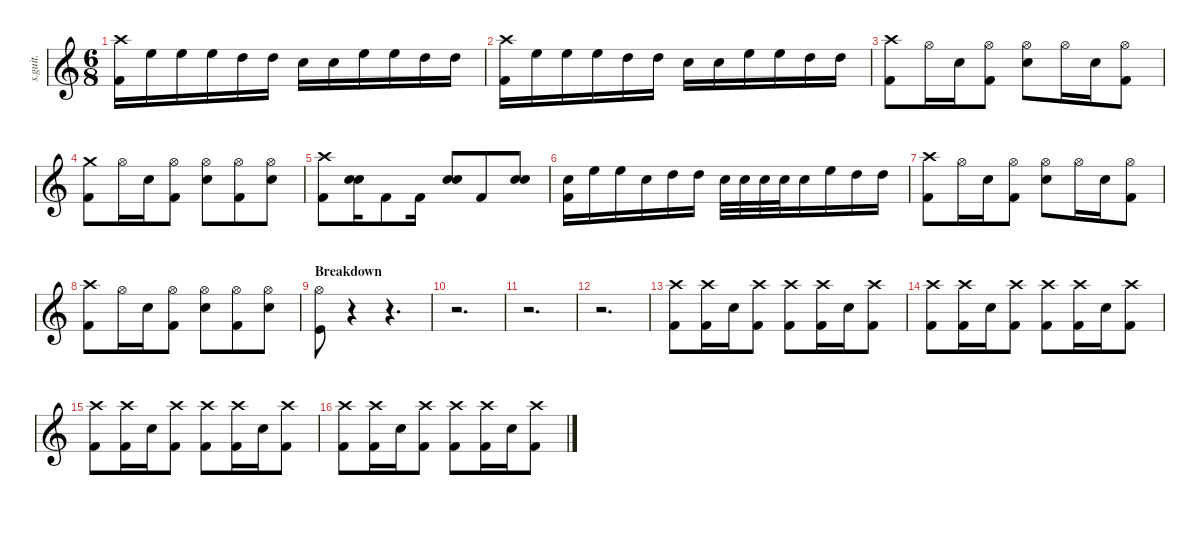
\defaultSystemsLayout 4
\hideDynamics
\bracketExtendMode nobrackets
\track ("John Dolmayan" "s.guit.") {instrument percussion}
\staff {score}
\articulation defaults
\ts (6 8)
\tempo (120 hide)
\clef g2
\ks c
("Crash high (hit)" "Kick (hit) 2").16{lyrics (0 "") lyrics (1 "") lyrics (2 "") lyrics (3 "") lyrics (4 "") dy f} "High Floor Tom (hit)".16{lyrics (0 "") lyrics (1 "") lyrics (2 "") lyrics (3 "") lyrics (4 "")} "High Floor Tom (hit)".16{lyrics (0 "") lyrics (1 "") lyrics (2 "") lyrics (3 "") lyrics (4 "")} "High Floor Tom (hit)".16{lyrics (0 "") lyrics (1 "") lyrics (2 "") lyrics (3 "") lyrics (4 "")} "High Tom (hit)".16{lyrics (0 "") lyrics (1 "") lyrics (2 "") lyrics (3 "") lyrics (4 "")} "High Tom (hit)".16{lyrics (0 "") lyrics (1 "") lyrics (2 "") lyrics (3 "") lyrics (4 "")} "Snare (hit) 2".16{lyrics (0 "") lyrics (1 "") lyrics (2 "") lyrics (3 "") lyrics (4 "")} "Snare (hit) 2".16{lyrics (0 "") lyrics (1 "") lyrics (2 "") lyrics (3 "") lyrics (4 "")} "High Floor Tom (hit)".16{lyrics (0 "") lyrics (1 "") lyrics (2 "") lyrics (3 "") lyrics (4 "")} "High Floor Tom (hit)".16{lyrics (0 "") lyrics (1 "") lyrics (2 "") lyrics (3 "") lyrics (4 "")} "High Tom (hit)".16{lyrics (0 "") lyrics (1 "") lyrics (2 "") lyrics (3 "") lyrics (4 "")} "High Tom (hit)".16{lyrics (0 "") lyrics (1 "") lyrics (2 "") lyrics (3 "") lyrics (4 "")} |
("Crash high (hit)" "Kick (hit) 2").16{lyrics (0 "") lyrics (1 "") lyrics (2 "") lyrics (3 "") lyrics (4 "")} "High Floor Tom (hit)".16{lyrics (0 "") lyrics (1 "") lyrics (2 "") lyrics (3 "") lyrics (4 "")} "High Floor Tom (hit)".16{lyrics (0 "") lyrics (1 "") lyrics (2 "") lyrics (3 "") lyrics (4 "")} "High Floor Tom (hit)".16{lyrics (0 "") lyrics (1 "") lyrics (2 "") lyrics (3 "") lyrics (4 "")} "High Tom (hit)".16{lyrics (0 "") lyrics (1 "") lyrics (2 "") lyrics (3 "") lyrics (4 "")} "High Tom (hit)".16{lyrics (0 "") lyrics (1 "") lyrics (2 "") lyrics (3 "") lyrics (4 "")} "Snare (hit) 2".16{lyrics (0 "") lyrics (1 "") lyrics (2 "") lyrics (3 "") lyrics (4 "")} "Snare (hit) 2".16{lyrics (0 "") lyrics (1 "") lyrics (2 "") lyrics (3 "") lyrics (4 "")} "High Floor Tom (hit)".16{lyrics (0 "") lyrics (1 "") lyrics (2 "") lyrics (3 "") lyrics (4 "")} "High Floor Tom (hit)".16{lyrics (0 "") lyrics (1 "") lyrics (2 "") lyrics (3 "") lyrics (4 "")} "High Tom (hit)".16{lyrics (0 "") lyrics (1 "") lyrics (2 "") lyrics (3 "") lyrics (4 "")} "High Tom (hit)".16{lyrics (0 "") lyrics (1 "") lyrics (2 "") lyrics (3 "") lyrics (4 "")} |
("Crash high (hit)" "Kick (hit) 2").8{lyrics (0 "") lyrics (1 "") lyrics (2 "") lyrics (3 "") lyrics (4 "")} "Hi-Hat (open)".16{lyrics (0 "") lyrics (1 "") lyrics (2 "") lyrics (3 "") lyrics (4 "")} "Snare (hit) 2".16{lyrics (0 "") lyrics (1 "") lyrics (2 "") lyrics (3 "") lyrics (4 "")} ("Hi-Hat (open)" "Kick (hit) 2").8{lyrics (0 "") lyrics (1 "") lyrics (2 "") lyrics (3 "") lyrics (4 "")} ("Hi-Hat (open)" "Snare (hit) 2").8{lyrics (0 "") lyrics (1 "") lyrics (2 "") lyrics (3 "") lyrics (4 "")} "Hi-Hat (open)".16{lyrics (0 "") lyrics (1 "") lyrics (2 "") lyrics (3 "") lyrics (4 "")} "Snare (hit) 2".16{lyrics (0 "") lyrics (1 "") lyrics (2 "") lyrics (3 "") lyrics (4 "")} ("Hi-Hat (open)" "Kick (hit) 2").8{lyrics (0 "") lyrics (1 "") lyrics (2 "") lyrics (3 "") lyrics (4 "")} |
("Crash medium (hit)" "Kick (hit) 2").8{lyrics (0 "") lyrics (1 "") lyrics (2 "") lyrics (3 "") lyrics (4 "")} "Hi-Hat (open)".16{lyrics (0 "") lyrics (1 "") lyrics (2 "") lyrics (3 "") lyrics (4 "")} "Snare (hit) 2".16{lyrics (0 "") lyrics (1 "") lyrics (2 "") lyrics (3 "") lyrics (4 "")} ("Hi-Hat (open)" "Kick (hit) 2").8{lyrics (0 "") lyrics (1 "") lyrics (2 "") lyrics (3 "") lyrics (4 "")} ("Hi-Hat (open)" "Snare (hit) 2").8{lyrics (0 "") lyrics (1 "") lyrics (2 "") lyrics (3 "") lyrics (4 "")} ("Hi-Hat (open)" "Kick (hit) 2").8{lyrics (0 "") lyrics (1 "") lyrics (2 "") lyrics (3 "") lyrics (4 "")} ("Hi-Hat (open)" "Snare (hit) 2").8{lyrics (0 "") lyrics (1 "") lyrics (2 "") lyrics (3 "") lyrics (4 "")} |
("Crash high (hit)" "Kick (hit) 2").8{lyrics (0 "") lyrics (1 "") lyrics (2 "") lyrics (3 "") lyrics (4 "")} ("Snare (hit) 2" "Snare (hit) 2").16{bu 30 lyrics (0 "") lyrics (1 "") lyrics (2 "") lyrics (3 "") lyrics (4 "")} "Kick (hit) 2".8{lyrics (0 "") lyrics (1 "") lyrics (2 "") lyrics (3 "") lyrics (4 "")} "Kick (hit) 2".16{lyrics (0 "") lyrics (1 "") lyrics (2 "") lyrics (3 "") lyrics (4 "")} ("Snare (hit) 2" "Snare (hit) 2").8{bu 30 lyrics (0 "") lyrics (1 "") lyrics (2 "") lyrics (3 "") lyrics (4 "")} "Kick (hit) 2".8{lyrics (0 "") lyrics (1 "") lyrics (2 "") lyrics (3 "") lyrics (4 "")} ("Snare (hit) 2" "Snare (hit) 2").8{bu 30 lyrics (0 "") lyrics (1 "") lyrics (2 "") lyrics (3 "") lyrics (4 "")} |
("Snare (hit) 2" "Kick (hit) 2").16{lyrics (0 "") lyrics (1 "") lyrics (2 "") lyrics (3 "") lyrics (4 "")} "High Floor Tom (hit)".16{lyrics (0 "") lyrics (1 "") lyrics (2 "") lyrics (3 "") lyrics (4 "")} "High Floor Tom (hit)".16{lyrics (0 "") lyrics (1 "") lyrics (2 "") lyrics (3 "") lyrics (4 "")} "Snare (hit) 2".16{lyrics (0 "") lyrics (1 "") lyrics (2 "") lyrics (3 "") lyrics (4 "")} "High Tom (hit)".16{lyrics (0 "") lyrics (1 "") lyrics (2 "") lyrics (3 "") lyrics (4 "")} "High Tom (hit)".16{lyrics (0 "") lyrics (1 "") lyrics (2 "") lyrics (3 "") lyrics (4 "")} "Snare (hit) 2".32{lyrics (0 "") lyrics (1 "") lyrics (2 "") lyrics (3 "") lyrics (4 "")} "Snare (hit) 2".32{lyrics (0 "") lyrics (1 "") lyrics (2 "") lyrics (3 "") lyrics (4 "")} "Snare (hit) 2".32{lyrics (0 "") lyrics (1 "") lyrics (2 "") lyrics (3 "") lyrics (4 "")} "Snare (hit) 2".32{lyrics (0 "") lyrics (1 "") lyrics (2 "") lyrics (3 "") lyrics (4 "")} "Snare (hit) 2".16{lyrics (0 "") lyrics (1 "") lyrics (2 "") lyrics (3 "") lyrics (4 "")} "High Floor Tom (hit)".16{lyrics (0 "") lyrics (1 "") lyrics (2 "") lyrics (3 "") lyrics (4 "")} "High Tom (hit)".16{lyrics (0 "") lyrics (1 "") lyrics (2 "") lyrics (3 "") lyrics (4 "")} "High Tom (hit)".16{lyrics (0 "") lyrics (1 "") lyrics (2 "") lyrics (3 "") lyrics (4 "")} |
("Crash high (hit)" "Kick (hit) 2").8{lyrics (0 "") lyrics (1 "") lyrics (2 "") lyrics (3 "") lyrics (4 "")} "Hi-Hat (open)".16{lyrics (0 "") lyrics (1 "") lyrics (2 "") lyrics (3 "") lyrics (4 "")} "Snare (hit) 2".16{lyrics (0 "") lyrics (1 "") lyrics (2 "") lyrics (3 "") lyrics (4 "")} ("Hi-Hat (open)" "Kick (hit) 2").8{lyrics (0 "") lyrics (1 "") lyrics (2 "") lyrics (3 "") lyrics (4 "")} ("Hi-Hat (open)" "Snare (hit) 2").8{lyrics (0 "") lyrics (1 "") lyrics (2 "") lyrics (3 "") lyrics (4 "")} "Hi-Hat (open)".16{lyrics (0 "") lyrics (1 "") lyrics (2 "") lyrics (3 "") lyrics (4 "")} "Snare (hit) 2".16{lyrics (0 "") lyrics (1 "") lyrics (2 "") lyrics (3 "") lyrics (4 "")} ("Hi-Hat (open)" "Kick (hit) 2").8{lyrics (0 "") lyrics (1 "") lyrics (2 "") lyrics (3 "") lyrics (4 "")} |
("Crash high (hit)" "Kick (hit) 2").8{lyrics (0 "") lyrics (1 "") lyrics (2 "") lyrics (3 "") lyrics (4 "")} "Hi-Hat (open)".16{lyrics (0 "") lyrics (1 "") lyrics (2 "") lyrics (3 "") lyrics (4 "")} "Snare (hit) 2".16{lyrics (0 "") lyrics (1 "") lyrics (2 "") lyrics (3 "") lyrics (4 "")} ("Hi-Hat (open)" "Kick (hit) 2").8{lyrics (0 "") lyrics (1 "") lyrics (2 "") lyrics (3 "") lyrics (4 "")} ("Hi-Hat (open)" "Snare (hit) 2").8{lyrics (0 "") lyrics (1 "") lyrics (2 "") lyrics (3 "") lyrics (4 "")} ("Kick (hit) 2" "Hi-Hat (open)").8{lyrics (0 "") lyrics (1 "") lyrics (2 "") lyrics (3 "") lyrics (4 "")} ("Hi-Hat (open)" "Snare (hit) 2").8{lyrics (0 "") lyrics (1 "") lyrics (2 "") lyrics (3 "") lyrics (4 "")} |
\section ("" "Breakdown")
\tempo (127 hide)
("Hi-Hat (open)" "Kick (hit)").8{lyrics (0 "") lyrics (1 "") lyrics (2 "") lyrics (3 "") lyrics (4 "")} r.4 r.4{d} |
r.2{d} |
r.2{d} |
r.2{d} |
\tempo (123 hide)
("Crash high (hit)" "Kick (hit) 2").8{lyrics (0 "") lyrics (1 "") lyrics (2 "") lyrics (3 "") lyrics (4 "")} ("Crash high (hit)" "Kick (hit) 2").16{lyrics (0 "") lyrics (1 "") lyrics (2 "") lyrics (3 "") lyrics (4 "")} "Snare (hit) 2".16{lyrics (0 "") lyrics (1 "") lyrics (2 "") lyrics (3 "") lyrics (4 "")} ("Crash high (hit)" "Kick (hit) 2").8{lyrics (0 "") lyrics (1 "") lyrics (2 "") lyrics (3 "") lyrics (4 "")} ("Crash high (hit)" "Kick (hit) 2").8{lyrics (0 "") lyrics (1 "") lyrics (2 "") lyrics (3 "") lyrics (4 "")} ("Crash high (hit)" "Kick (hit) 2").16{lyrics (0 "") lyrics (1 "") lyrics (2 "") lyrics (3 "") lyrics (4 "")} "Snare (hit) 2".16{lyrics (0 "") lyrics (1 "") lyrics (2 "") lyrics (3 "") lyrics (4 "")} ("Crash high (hit)" "Kick (hit) 2").8{lyrics (0 "") lyrics (1 "") lyrics (2 "") lyrics (3 "") lyrics (4 "")} |
("Crash high (hit)" "Kick (hit) 2").8{lyrics (0 "") lyrics (1 "") lyrics (2 "") lyrics (3 "") lyrics (4 "")} ("Crash high (hit)" "Kick (hit) 2").16{lyrics (0 "") lyrics (1 "") lyrics (2 "") lyrics (3 "") lyrics (4 "")} "Snare (hit) 2".16{lyrics (0 "") lyrics (1 "") lyrics (2 "") lyrics (3 "") lyrics (4 "")} ("Crash high (hit)" "Kick (hit) 2").8{lyrics (0 "") lyrics (1 "") lyrics (2 "") lyrics (3 "") lyrics (4 "")} ("Crash high (hit)" "Kick (hit) 2").8{lyrics (0 "") lyrics (1 "") lyrics (2 "") lyrics (3 "") lyrics (4 "")} ("Crash high (hit)" "Kick (hit) 2").16{lyrics (0 "") lyrics (1 "") lyrics (2 "") lyrics (3 "") lyrics (4 "")} "Snare (hit) 2".16{lyrics (0 "") lyrics (1 "") lyrics (2 "") lyrics (3 "") lyrics (4 "")} ("Crash high (hit)" "Kick (hit) 2").8{lyrics (0 "") lyrics (1 "") lyrics (2 "") lyrics (3 "") lyrics (4 "")} |
("Crash high (hit)" "Kick (hit) 2").8{lyrics (0 "") lyrics (1 "") lyrics (2 "") lyrics (3 "") lyrics (4 "")} ("Crash high (hit)" "Kick (hit) 2").16{lyrics (0 "") lyrics (1 "") lyrics (2 "") lyrics (3 "") lyrics (4 "")} "Snare (hit) 2".16{lyrics (0 "") lyrics (1 "") lyrics (2 "") lyrics (3 "") lyrics (4 "")} ("Crash high (hit)" "Kick (hit) 2").8{lyrics (0 "") lyrics (1 "") lyrics (2 "") lyrics (3 "") lyrics (4 "")} ("Crash high (hit)" "Kick (hit) 2").8{lyrics (0 "") lyrics (1 "") lyrics (2 "") lyrics (3 "") lyrics (4 "")} ("Crash high (hit)" "Kick (hit) 2").16{lyrics (0 "") lyrics (1 "") lyrics (2 "") lyrics (3 "") lyrics (4 "")} "Snare (hit) 2".16{lyrics (0 "") lyrics (1 "") lyrics (2 "") lyrics (3 "") lyrics (4 "")} ("Crash high (hit)" "Kick (hit) 2").8{lyrics (0 "") lyrics (1 "") lyrics (2 "") lyrics (3 "") lyrics (4 "")} |
("Crash high (hit)" "Kick (hit) 2").8{lyrics (0 "") lyrics (1 "") lyrics (2 "") lyrics (3 "") lyrics (4 "")} ("Crash high (hit)" "Kick (hit) 2").16{lyrics (0 "") lyrics (1 "") lyrics (2 "") lyrics (3 "") lyrics (4 "")} "Snare (hit) 2".16{lyrics (0 "") lyrics (1 "") lyrics (2 "") lyrics (3 "") lyrics (4 "")} ("Crash high (hit)" "Kick (hit) 2").8{lyrics (0 "") lyrics (1 "") lyrics (2 "") lyrics (3 "") lyrics (4 "")} ("Crash high (hit)" "Kick (hit) 2").8{lyrics (0 "") lyrics (1 "") lyrics (2 "") lyrics (3 "") lyrics (4 "")} ("Crash high (hit)" "Kick (hit) 2").16{lyrics (0 "") lyrics (1 "") lyrics (2 "") lyrics (3 "") lyrics (4 "")} "Snare (hit) 2".16{lyrics (0 "") lyrics (1 "") lyrics (2 "") lyrics (3 "") lyrics (4 "")} ("Crash high (hit)" "Kick (hit) 2").8{lyrics (0 "") lyrics (1 "") lyrics (2 "") lyrics (3 "") lyrics (4 "")}
